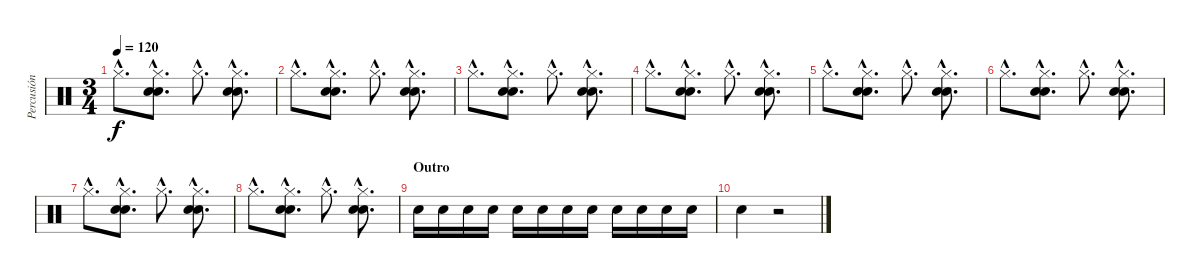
\track ("Percusión" "Percusión") {instrument percussion}
\staff {score}
\articulation defaults
\ts (3 4)
\tempo 120
\clef neutral
\ks c "Hi-Hat (closed)"{hac}.8{d dy f}
("Electric Snare (hit)"{hac} "Snare (hit) 2"{hac} "Hi-Hat (closed)"{hac}).8{d} "Hi-Hat (closed)"{hac}.8{d} ("Electric Snare (hit)"{hac} "Snare (hit) 2"{hac} "Hi-Hat (closed)"{hac}).8{d} |
"Hi-Hat (closed)"{hac}.8{d} ("Electric Snare (hit)"{hac} "Snare (hit) 2"{hac} "Hi-Hat (closed)"{hac}).8{d} "Hi-Hat (closed)"{hac}.8{d} ("Electric Snare (hit)"{hac} "Snare (hit) 2"{hac} "Hi-Hat (closed)"{hac}).8{d} |
"Hi-Hat (closed)"{hac}.8{d} ("Electric Snare (hit)"{hac} "Snare (hit) 2"{hac} "Hi-Hat (closed)"{hac}).8{d} "Hi-Hat (closed)"{hac}.8{d} ("Electric Snare (hit)"{hac} "Snare (hit) 2"{hac} "Hi-Hat (closed)"{hac}).8{d} |
"Hi-Hat (closed)"{hac}.8{d} ("Electric Snare (hit)"{hac} "Snare (hit) 2"{hac} "Hi-Hat (closed)"{hac}).8{d} "Hi-Hat (closed)"{hac}.8{d} ("Electric Snare (hit)"{hac} "Snare (hit) 2"{hac} "Hi-Hat (closed)"{hac}).8{d} |
"Hi-Hat (closed)"{hac}.8{d} ("Electric Snare (hit)"{hac} "Snare (hit) 2"{hac} "Hi-Hat (closed)"{hac}).8{d} "Hi-Hat (closed)"{hac}.8{d} ("Electric Snare (hit)"{hac} "Snare (hit) 2"{hac} "Hi-Hat (closed)"{hac}).8{d} |
"Hi-Hat (closed)"{hac}.8{d} ("Electric Snare (hit)"{hac} "Snare (hit) 2"{hac} "Hi-Hat (closed)"{hac}).8{d} "Hi-Hat (closed)"{hac}.8{d} ("Electric Snare (hit)"{hac} "Snare (hit) 2"{hac} "Hi-Hat (closed)"{hac}).8{d} |
"Hi-Hat (closed)"{hac}.8{d} ("Electric Snare (hit)"{hac} "Snare (hit) 2"{hac} "Hi-Hat (closed)"{hac}).8{d} "Hi-Hat (closed)"{hac}.8{d} ("Electric Snare (hit)"{hac} "Snare (hit) 2"{hac} "Hi-Hat (closed)"{hac}).8{d} |
"Hi-Hat (closed)"{hac}.8{d} ("Electric Snare (hit)"{hac} "Snare (hit) 2"{hac} "Hi-Hat (closed)"{hac}).8{d} "Hi-Hat (closed)"{hac}.8{d} ("Electric Snare (hit)"{hac} "Snare (hit) 2"{hac} "Hi-Hat (closed)"{hac}).8{d} |
\section ("" "Outro")
"Electric Snare (hit)".16 "Electric Snare (hit)".16 "Electric Snare (hit)".16 "Electric Snare (hit)".16 "Electric Snare (hit)".16 "Electric Snare (hit)".16 "Electric Snare (hit)".16 "Electric Snare (hit)".16 "Electric Snare (hit)".16 "Electric Snare (hit)".16 "Electric Snare (hit)".16 "Electric Snare (hit)".16 |
"Electric Snare (hit)".4 r.2
